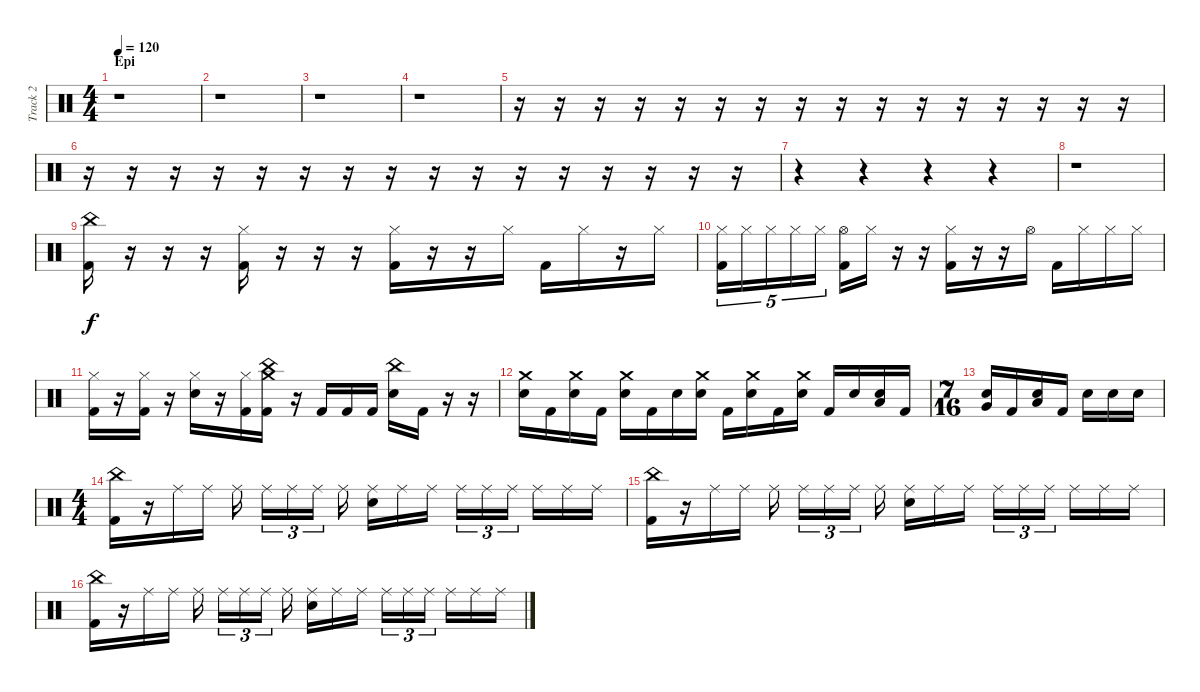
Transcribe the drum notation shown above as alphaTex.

\track ("Track 2" "Track 2") {instrument percussion}
\staff {score}
\articulation defaults
\ts (4 4)
\section ("" "Epi")
\tempo 120
\clef neutral
\ks c
r.1{dy f} |
r.1 |
r.1 |
r.1 |
r.16 r.16 r.16 r.16 r.16 r.16 r.16 r.16 r.16 r.16 r.16 r.16 r.16 r.16 r.16 r.16 |
r.16 r.16 r.16 r.16 r.16 r.16 r.16 r.16 r.16 r.16 r.16 r.16 r.16 r.16 r.16 r.16 |
r.4 r.4 r.4 r.4 |
r.1 |
("China (hit)" "Kick (hit) 2").16 r.16 r.16 r.16 ("Hi-Hat (closed)" "Kick (hit) 2").16 r.16 r.16 r.16 ("Hi-Hat (closed)" "Kick (hit) 2").16 r.16 r.16 "Hi-Hat (closed)".16 "Kick (hit) 2".16 "Hi-Hat (closed)".16 r.16 "Hi-Hat (closed)".16 |
("Hi-Hat (closed)" "Kick (hit) 2").16{tu (5 4)} "Hi-Hat (closed)".16{tu (5 4)} "Hi-Hat (closed)".16{tu (5 4)} "Hi-Hat (closed)".16{tu (5 4)} "Hi-Hat (closed)".16{tu (5 4)} ("Hi-Hat (open)" "Kick (hit) 2").16 "Hi-Hat (closed)".16 r.16 r.16 ("Hi-Hat (closed)" "Kick (hit) 2").16 r.16 r.16 "Hi-Hat (open)".16 "Kick (hit) 2".16 "Hi-Hat (closed)".16 "Hi-Hat (closed)".16 "Hi-Hat (closed)".16 |
("Hi-Hat (closed)" "Kick (hit) 2").16 r.16 ("Hi-Hat (closed)" "Kick (hit) 2").16 r.16 ("Hi-Hat (closed)" "Electric Snare (hit)").16 r.16 ("Hi-Hat (closed)" "Kick (hit) 2").16 ("China (hit)" "Crash medium (hit)" "Kick (hit) 2").16 r.16 "Kick (hit) 2".16 "Kick (hit) 2".16 "Kick (hit) 2".16 ("China (hit)" "Electric Snare (hit)").16 "Kick (hit) 2".16 r.16 r.16 |
("Crash medium (hit)" "Electric Snare (hit)").16 "Kick (hit) 2".16 ("Crash medium (hit)" "Electric Snare (hit)").16 "Kick (hit) 2".16 ("Crash medium (hit)" "Electric Snare (hit)").16 "Kick (hit) 2".16 "Electric Snare (hit)".16 ("Crash medium (hit)" "Electric Snare (hit)").16 "Kick (hit) 2".16 ("Crash medium (hit)" "Electric Snare (hit)").16 "Kick (hit) 2".16 ("Crash medium (hit)" "Electric Snare (hit)").16 "Kick (hit) 2".16 "Electric Snare (hit)".16 ("Electric Snare (hit)" "Low Tom (hit)").16 "Kick (hit) 2".16 |
\ts (7 16)
("Electric Snare (hit)" "Very Low Tom (hit)").16 "Kick (hit) 2".16 ("Electric Snare (hit)" "Low Floor Tom (hit)").16 "Kick (hit) 2".16 "Electric Snare (hit)".16 "Electric Snare (hit)".16 "Electric Snare (hit)".16 |
\ts (4 4)
("China (hit)" "Kick (hit) 2").16 r.16 "Ride (middle)".16 "Ride (middle)".16 "Ride (middle)".16{beam splitsecondary} "Ride (middle)".16{tu (3 2)} "Ride (middle)".16{tu (3 2)} "Ride (middle)".16{tu (3 2) beam splitsecondary} "Ride (middle)".16 ("Ride (middle)" "Electric Snare (hit)").16 "Ride (middle)".16 "Ride (middle)".16{beam splitsecondary} "Ride (middle)".16{tu (3 2)} "Ride (middle)".16{tu (3 2)} "Ride (middle)".16{tu (3 2) beam splitsecondary} "Ride (middle)".16 "Ride (middle)".16 "Ride (middle)".16 |
("China (hit)" "Kick (hit) 2").16 r.16 "Ride (middle)".16 "Ride (middle)".16 "Ride (middle)".16{beam splitsecondary} "Ride (middle)".16{tu (3 2)} "Ride (middle)".16{tu (3 2)} "Ride (middle)".16{tu (3 2) beam splitsecondary} "Ride (middle)".16 ("Ride (middle)" "Electric Snare (hit)").16 "Ride (middle)".16 "Ride (middle)".16{beam splitsecondary} "Ride (middle)".16{tu (3 2)} "Ride (middle)".16{tu (3 2)} "Ride (middle)".16{tu (3 2) beam splitsecondary} "Ride (middle)".16 "Ride (middle)".16 "Ride (middle)".16 |
("China (hit)" "Kick (hit) 2").16 r.16 "Ride (middle)".16 "Ride (middle)".16 "Ride (middle)".16{beam splitsecondary} "Ride (middle)".16{tu (3 2)} "Ride (middle)".16{tu (3 2)} "Ride (middle)".16{tu (3 2) beam splitsecondary} "Ride (middle)".16 ("Ride (middle)" "Electric Snare (hit)").16 "Ride (middle)".16 "Ride (middle)".16{beam splitsecondary} "Ride (middle)".16{tu (3 2)} "Ride (middle)".16{tu (3 2)} "Ride (middle)".16{tu (3 2) beam splitsecondary} "Ride (middle)".16 "Ride (middle)".16 "Ride (middle)".16
